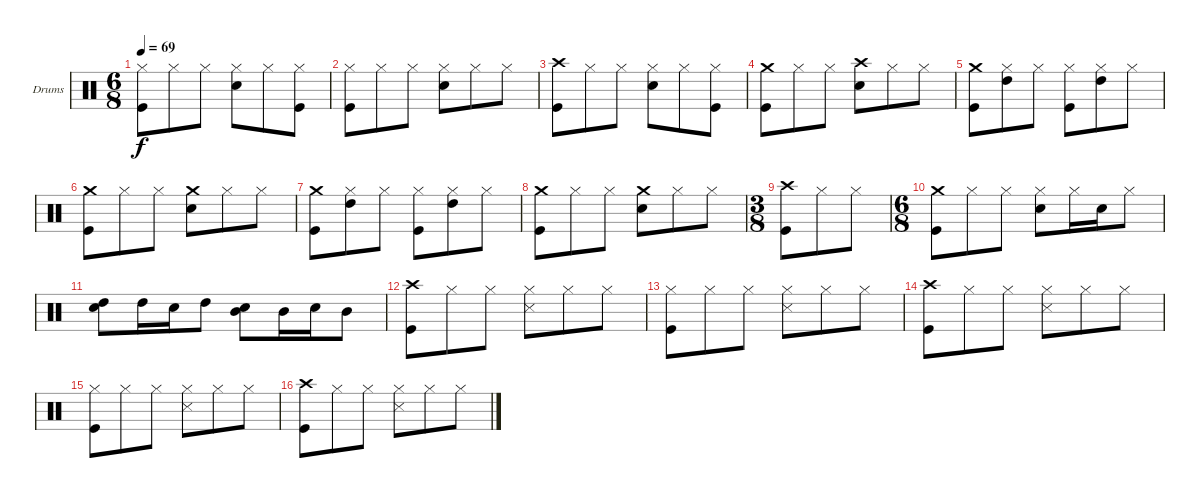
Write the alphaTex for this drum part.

\defaultSystemsLayout 4
\bracketExtendMode groupsimilarinstruments
\firstSystemTrackNameOrientation horizontal
\otherSystemsTrackNameOrientation horizontal
\track ("Удар" "Drums") {instrument percussion}
\staff {score}
\articulation defaults
\ts (6 8)
\tempo 69
\clef neutral
\ks c
("Hi-Hat (closed)" "Kick (hit)").8{dy f} "Hi-Hat (closed)".8 "Hi-Hat (closed)".8 ("Hi-Hat (closed)" "Snare (hit) 2").8 "Hi-Hat (closed)".8 ("Hi-Hat (closed)" "Kick (hit)").8 |
("Hi-Hat (closed)" "Kick (hit)").8 "Hi-Hat (closed)".8 "Hi-Hat (closed)".8 ("Hi-Hat (closed)" "Snare (hit) 2").8 "Hi-Hat (closed)".8 "Hi-Hat (closed)".8 |
("Crash high (hit)" "Kick (hit)").8 "Hi-Hat (closed)".8 "Hi-Hat (closed)".8 ("Hi-Hat (closed)" "Snare (hit) 2").8 "Hi-Hat (closed)".8 ("Hi-Hat (closed)" "Kick (hit)").8 |
("Crash medium (hit)" "Kick (hit)").8 "Hi-Hat (closed)".8 "Hi-Hat (closed)".8 ("Crash high (hit)" "Snare (hit) 2").8 "Hi-Hat (closed)".8 "Hi-Hat (closed)".8 |
("Crash medium (hit)" "Kick (hit)").8 ("Hi-Hat (closed)" "High Tom (hit)").8 "Hi-Hat (closed)".8 ("Hi-Hat (closed)" "Kick (hit)").8 ("Hi-Hat (closed)" "High Tom (hit)").8 "Hi-Hat (closed)".8 |
("Crash medium (hit)" "Kick (hit)").8 "Hi-Hat (closed)".8 "Hi-Hat (closed)".8 ("Crash medium (hit)" "Snare (hit) 2").8 "Hi-Hat (closed)".8 "Hi-Hat (closed)".8 |
("Crash medium (hit)" "Kick (hit)").8 ("Hi-Hat (closed)" "High Tom (hit)").8 "Hi-Hat (closed)".8 ("Hi-Hat (closed)" "Kick (hit)").8 ("Hi-Hat (closed)" "High Tom (hit)").8 "Hi-Hat (closed)".8 |
("Crash medium (hit)" "Kick (hit)").8 "Hi-Hat (closed)".8 "Hi-Hat (closed)".8 ("Crash medium (hit)" "Snare (hit) 2").8 "Hi-Hat (closed)".8 "Hi-Hat (closed)".8 |
\ts (3 8)
("Crash high (hit)" "Kick (hit)").8 "Hi-Hat (closed)".8 "Hi-Hat (closed)".8 |
\ts (6 8)
("Crash medium (hit)" "Kick (hit)").8 "Hi-Hat (closed)".8 "Hi-Hat (closed)".8 ("Hi-Hat (closed)" "Snare (hit) 2").8 "Hi-Hat (closed)".16 "Snare (hit) 2".16 "Hi-Hat (closed)".8 |
("High Tom (hit)" "Snare (hit) 2").8 "High Tom (hit)".16 "Snare (hit) 2".16 "High Tom (hit)".8 ("Snare (hit) 2" "Mid Tom (hit)").8 "Mid Tom (hit)".16 "Snare (hit) 2".16 "Mid Tom (hit)".8 |
("Crash high (hit)" "Kick (hit)").8 "Hi-Hat (closed)".8 "Hi-Hat (closed)".8 ("Hi-Hat (closed)" "Snare (side stick) 3").8 "Hi-Hat (closed)".8 "Hi-Hat (closed)".8 |
("Hi-Hat (closed)" "Kick (hit)").8 "Hi-Hat (closed)".8 "Hi-Hat (closed)".8 ("Hi-Hat (closed)" "Snare (side stick) 3").8 "Hi-Hat (closed)".8 "Hi-Hat (closed)".8 |
("Crash high (hit)" "Kick (hit)").8 "Hi-Hat (closed)".8 "Hi-Hat (closed)".8 ("Hi-Hat (closed)" "Snare (side stick) 3").8 "Hi-Hat (closed)".8 "Hi-Hat (closed)".8 |
("Hi-Hat (closed)" "Kick (hit)").8 "Hi-Hat (closed)".8 "Hi-Hat (closed)".8 ("Hi-Hat (closed)" "Snare (side stick) 3").8 "Hi-Hat (closed)".8 "Hi-Hat (closed)".8 |
("Crash high (hit)" "Kick (hit)").8 "Hi-Hat (closed)".8 "Hi-Hat (closed)".8 ("Hi-Hat (closed)" "Snare (side stick) 3").8 "Hi-Hat (closed)".8 "Hi-Hat (closed)".8
